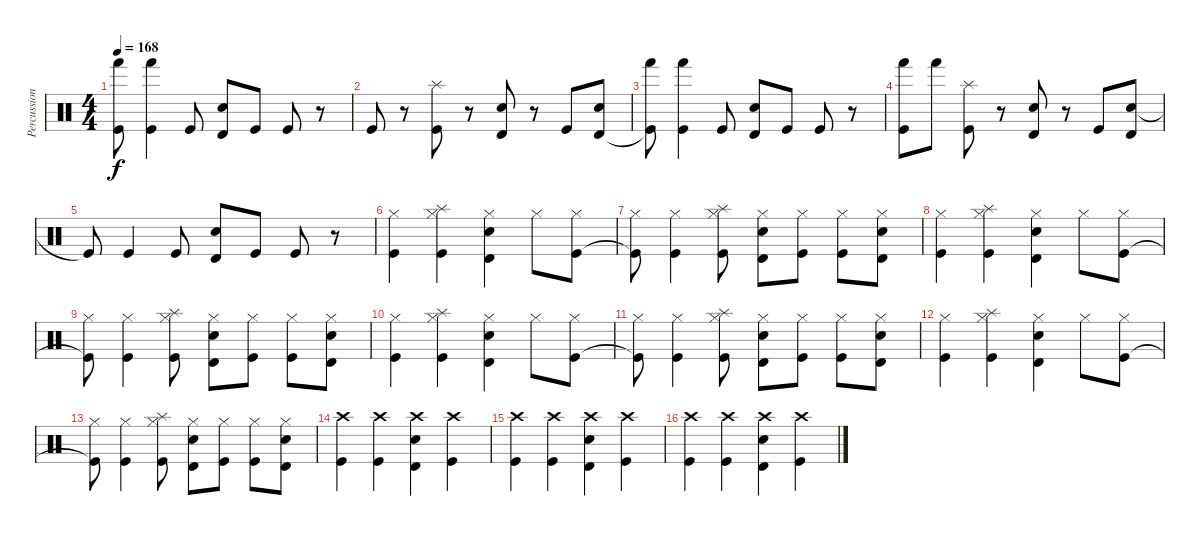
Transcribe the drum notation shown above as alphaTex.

\track ("Percussion" "Percussion") {instrument percussion}
\staff {score}
\articulation defaults
\ts (4 4)
\tempo 168
\clef neutral
\ks c
("Hand (hit)" "Kick (hit)"{t}).8{dy f} ("Hand (hit)" "Kick (hit)").4 "Kick (hit)".8 ("Timbale high (hit)" "Electric Snare (hit)").8 "Kick (hit)".8 "Kick (hit)".8 r.8 |
"Kick (hit)".8 r.8 ("Splash (hit)" "Kick (hit)").8 r.8 ("Timbale high (hit)" "Electric Snare (hit)").8 r.8 "Kick (hit)".8 ("Electric Snare (hit)" "Timbale high (hit)").8 |
("Hand (hit)" "Kick (hit)"{t}).8 ("Hand (hit)" "Kick (hit)").4 "Kick (hit)".8 ("Timbale high (hit)" "Electric Snare (hit)").8 "Kick (hit)".8 "Kick (hit)".8 r.8 |
("Hand (hit)" "Kick (hit)").8 "Hand (hit)".8 ("Splash (hit)" "Kick (hit)").8 r.8 ("Timbale high (hit)" "Electric Snare (hit)").8 r.8 "Kick (hit)".8 ("Electric Snare (hit)" "Timbale high (hit)").8 |
"Kick (hit)"{t}.8 "Kick (hit)".4 "Kick (hit)".8 ("Timbale high (hit)" "Electric Snare (hit)").8 "Kick (hit)".8 "Kick (hit)".8 r.8 |
("Hi-Hat (closed)" "Kick (hit)").4 ("Hi-Hat (closed)" "Splash (hit)" "Kick (hit)").4 ("Hi-Hat (closed)" "Timbale high (hit)" "Electric Snare (hit)").4 "Hi-Hat (closed)".8 ("Hi-Hat (closed)" "Kick (hit)").8 |
("Hi-Hat (closed)" "Kick (hit)"{t}).8 ("Hi-Hat (closed)" "Kick (hit)").4 ("Hi-Hat (closed)" "Splash (hit)" "Kick (hit)").8 ("Hi-Hat (closed)" "Timbale high (hit)" "Electric Snare (hit)").8 ("Hi-Hat (closed)" "Kick (hit)").8 ("Hi-Hat (closed)" "Kick (hit)").8 ("Hi-Hat (closed)" "Timbale high (hit)" "Electric Snare (hit)").8 |
("Hi-Hat (closed)" "Kick (hit)").4 ("Hi-Hat (closed)" "Splash (hit)" "Kick (hit)").4 ("Hi-Hat (closed)" "Timbale high (hit)" "Electric Snare (hit)").4 "Hi-Hat (closed)".8 ("Hi-Hat (closed)" "Kick (hit)").8 |
("Hi-Hat (closed)" "Kick (hit)"{t}).8 ("Hi-Hat (closed)" "Kick (hit)").4 ("Hi-Hat (closed)" "Splash (hit)" "Kick (hit)").8 ("Hi-Hat (closed)" "Timbale high (hit)" "Electric Snare (hit)").8 ("Hi-Hat (closed)" "Kick (hit)").8 ("Hi-Hat (closed)" "Kick (hit)").8 ("Hi-Hat (closed)" "Timbale high (hit)" "Electric Snare (hit)").8 |
("Hi-Hat (closed)" "Kick (hit)").4 ("Hi-Hat (closed)" "Splash (hit)" "Kick (hit)").4 ("Hi-Hat (closed)" "Timbale high (hit)" "Electric Snare (hit)").4 "Hi-Hat (closed)".8 ("Hi-Hat (closed)" "Kick (hit)").8 |
("Hi-Hat (closed)" "Kick (hit)"{t}).8 ("Hi-Hat (closed)" "Kick (hit)").4 ("Hi-Hat (closed)" "Splash (hit)" "Kick (hit)").8 ("Hi-Hat (closed)" "Timbale high (hit)" "Electric Snare (hit)").8 ("Hi-Hat (closed)" "Kick (hit)").8 ("Hi-Hat (closed)" "Kick (hit)").8 ("Hi-Hat (closed)" "Timbale high (hit)" "Electric Snare (hit)").8 |
("Hi-Hat (closed)" "Kick (hit)").4 ("Hi-Hat (closed)" "Splash (hit)" "Kick (hit)").4 ("Hi-Hat (closed)" "Timbale high (hit)" "Electric Snare (hit)").4 "Hi-Hat (closed)".8 ("Hi-Hat (closed)" "Kick (hit)").8 |
("Hi-Hat (closed)" "Kick (hit)"{t}).8 ("Hi-Hat (closed)" "Kick (hit)").4 ("Hi-Hat (closed)" "Splash (hit)" "Kick (hit)").8 ("Hi-Hat (closed)" "Timbale high (hit)" "Electric Snare (hit)").8 ("Hi-Hat (closed)" "Kick (hit)").8 ("Hi-Hat (closed)" "Kick (hit)").8 ("Hi-Hat (closed)" "Timbale high (hit)" "Electric Snare (hit)").8 |
("Crash high (hit)" "Kick (hit)").4 ("Crash high (hit)" "Kick (hit)").4 ("Crash high (hit)" "Timbale high (hit)" "Electric Snare (hit)").4 ("Crash high (hit)" "Kick (hit)").4 |
("Crash high (hit)" "Kick (hit)").4 ("Crash high (hit)" "Kick (hit)").4 ("Crash high (hit)" "Timbale high (hit)" "Electric Snare (hit)").4 ("Crash high (hit)" "Kick (hit)").4 |
("Crash high (hit)" "Kick (hit)").4 ("Crash high (hit)" "Kick (hit)").4 ("Crash high (hit)" "Timbale high (hit)" "Electric Snare (hit)").4 ("Crash high (hit)" "Kick (hit)").4
